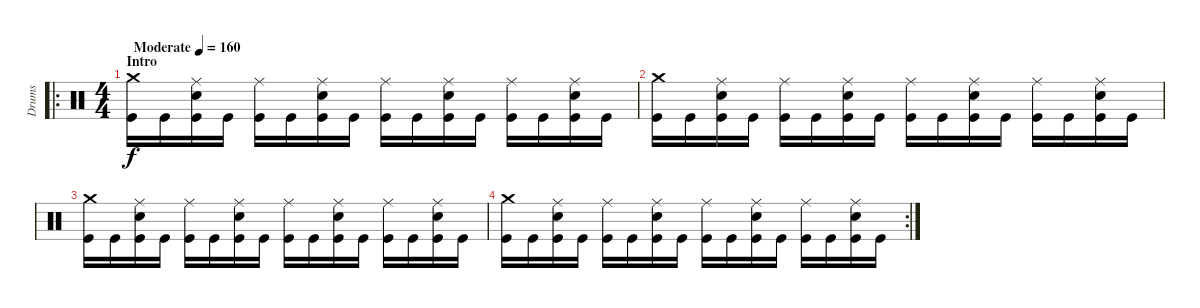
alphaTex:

\track ("Drums" "Drums") {instrument percussion}
\staff {score}
\articulation defaults
\ro
\ts (4 4)
\section ("" "Intro")
\tempo (160 "Moderate")
\clef neutral
\ks c
("Crash medium (hit)" "Kick (hit)").16{dy f} "Kick (hit)".16 ("Ride (middle)" "Snare (hit) 2" "Kick (hit)").16 "Kick (hit)".16 ("Ride (middle)" "Kick (hit)").16 "Kick (hit)".16 ("Ride (middle)" "Snare (hit) 2" "Kick (hit)").16 "Kick (hit)".16 ("Ride (middle)" "Kick (hit)").16 "Kick (hit)".16 ("Ride (middle)" "Snare (hit) 2" "Kick (hit)").16 "Kick (hit)".16 ("Ride (middle)" "Kick (hit)").16 "Kick (hit)".16 ("Ride (middle)" "Snare (hit) 2" "Kick (hit)").16 "Kick (hit)".16 |
("Crash medium (hit)" "Kick (hit)").16 "Kick (hit)".16 ("Ride (middle)" "Snare (hit) 2" "Kick (hit)").16 "Kick (hit)".16 ("Ride (middle)" "Kick (hit)").16 "Kick (hit)".16 ("Ride (middle)" "Snare (hit) 2" "Kick (hit)").16 "Kick (hit)".16 ("Ride (middle)" "Kick (hit)").16 "Kick (hit)".16 ("Ride (middle)" "Snare (hit) 2" "Kick (hit)").16 "Kick (hit)".16 ("Ride (middle)" "Kick (hit)").16 "Kick (hit)".16 ("Ride (middle)" "Snare (hit) 2" "Kick (hit)").16 "Kick (hit)".16 |
("Crash medium (hit)" "Kick (hit)").16 "Kick (hit)".16 ("Ride (middle)" "Snare (hit) 2" "Kick (hit)").16 "Kick (hit)".16 ("Ride (middle)" "Kick (hit)").16 "Kick (hit)".16 ("Ride (middle)" "Snare (hit) 2" "Kick (hit)").16 "Kick (hit)".16 ("Ride (middle)" "Kick (hit)").16 "Kick (hit)".16 ("Ride (middle)" "Snare (hit) 2" "Kick (hit)").16 "Kick (hit)".16 ("Ride (middle)" "Kick (hit)").16 "Kick (hit)".16 ("Ride (middle)" "Snare (hit) 2" "Kick (hit)").16 "Kick (hit)".16 |
\rc 2
("Crash medium (hit)" "Kick (hit)").16 "Kick (hit)".16 ("Ride (middle)" "Snare (hit) 2" "Kick (hit)").16 "Kick (hit)".16 ("Ride (middle)" "Kick (hit)").16 "Kick (hit)".16 ("Ride (middle)" "Snare (hit) 2" "Kick (hit)").16 "Kick (hit)".16 ("Ride (middle)" "Kick (hit)").16 "Kick (hit)".16 ("Ride (middle)" "Snare (hit) 2" "Kick (hit)").16 "Kick (hit)".16 ("Ride (middle)" "Kick (hit)").16 "Kick (hit)".16 ("Ride (middle)" "Snare (hit) 2" "Kick (hit)").16 "Kick (hit)".16
